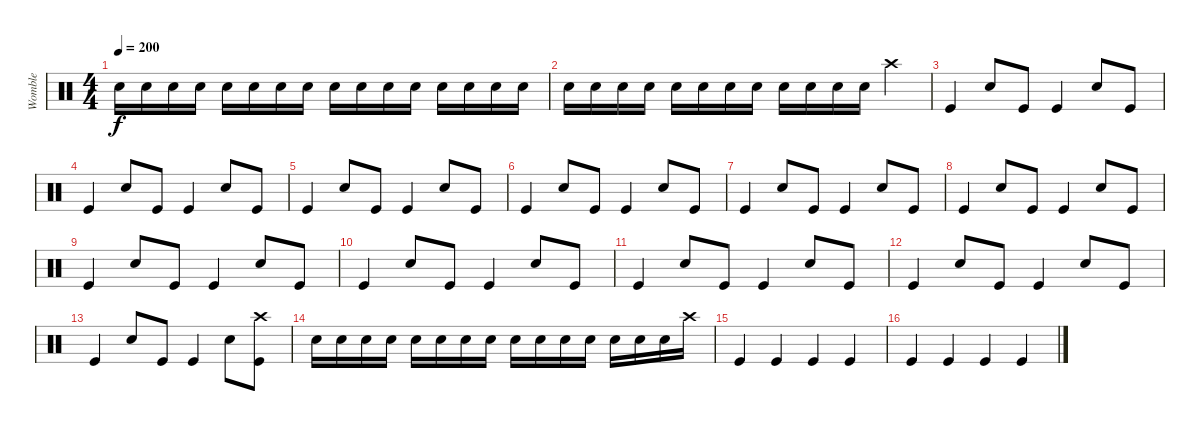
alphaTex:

\track ("Womble" "Womble") {instrument percussion}
\staff {score}
\articulation defaults
\ts (4 4)
\tempo 200
\clef neutral
\ks c "Snare (hit) 2".16{dy f} "Snare (hit) 2".16 "Snare (hit) 2".16 "Snare (hit) 2".16 "Snare (hit) 2".16 "Snare (hit) 2".16 "Snare (hit) 2".16 "Snare (hit) 2".16 "Snare (hit) 2".16 "Snare (hit) 2".16 "Snare (hit) 2".16 "Snare (hit) 2".16 "Snare (hit) 2".16 "Snare (hit) 2".16 "Snare (hit) 2".16 "Snare (hit) 2".16
|
"Snare (hit) 2".16 "Snare (hit) 2".16 "Snare (hit) 2".16 "Snare (hit) 2".16 "Snare (hit) 2".16 "Snare (hit) 2".16 "Snare (hit) 2".16 "Snare (hit) 2".16 "Snare (hit) 2".16 "Snare (hit) 2".16 "Snare (hit) 2".16 "Snare (hit) 2".16 "Crash high (hit)".4 |
"Kick (hit)".4 "Snare (hit) 2".8 "Kick (hit)".8 "Kick (hit)".4 "Electric Snare (hit)".8 "Kick (hit)".8 |
"Kick (hit)".4 "Snare (hit) 2".8 "Kick (hit)".8 "Kick (hit)".4 "Electric Snare (hit)".8 "Kick (hit)".8 |
"Kick (hit)".4 "Snare (hit) 2".8 "Kick (hit)".8 "Kick (hit)".4 "Electric Snare (hit)".8 "Kick (hit)".8 |
"Kick (hit)".4 "Snare (hit) 2".8 "Kick (hit)".8 "Kick (hit)".4 "Electric Snare (hit)".8 "Kick (hit)".8 |
"Kick (hit)".4 "Snare (hit) 2".8 "Kick (hit)".8 "Kick (hit)".4 "Electric Snare (hit)".8 "Kick (hit)".8 |
"Kick (hit)".4 "Snare (hit) 2".8 "Kick (hit)".8 "Kick (hit)".4 "Electric Snare (hit)".8 "Kick (hit)".8 |
"Kick (hit)".4 "Snare (hit) 2".8 "Kick (hit)".8 "Kick (hit)".4 "Electric Snare (hit)".8 "Kick (hit)".8 |
"Kick (hit)".4 "Snare (hit) 2".8 "Kick (hit)".8 "Kick (hit)".4 "Electric Snare (hit)".8 "Kick (hit)".8 |
"Kick (hit)".4 "Snare (hit) 2".8 "Kick (hit)".8 "Kick (hit)".4 "Electric Snare (hit)".8 "Kick (hit)".8 |
"Kick (hit)".4 "Snare (hit) 2".8 "Kick (hit)".8 "Kick (hit)".4 "Electric Snare (hit)".8 "Kick (hit)".8 |
"Kick (hit)".4 "Snare (hit) 2".8 "Kick (hit)".8 "Kick (hit)".4 "Electric Snare (hit)".8 ("Crash high (hit)" "Kick (hit)").8 |
"Snare (hit) 2".16 "Snare (hit) 2".16 "Snare (hit) 2".16 "Snare (hit) 2".16 "Snare (hit) 2".16 "Snare (hit) 2".16 "Snare (hit) 2".16 "Snare (hit) 2".16 "Snare (hit) 2".16 "Snare (hit) 2".16 "Snare (hit) 2".16 "Snare (hit) 2".16 "Snare (hit) 2".16 "Snare (hit) 2".16 "Snare (hit) 2".16 "Crash high (hit)".16 |
"Kick (hit)".4 "Kick (hit)".4 "Kick (hit)".4 "Kick (hit)".4 |
"Kick (hit)".4 "Kick (hit)".4 "Kick (hit)".4 "Kick (hit)".4
